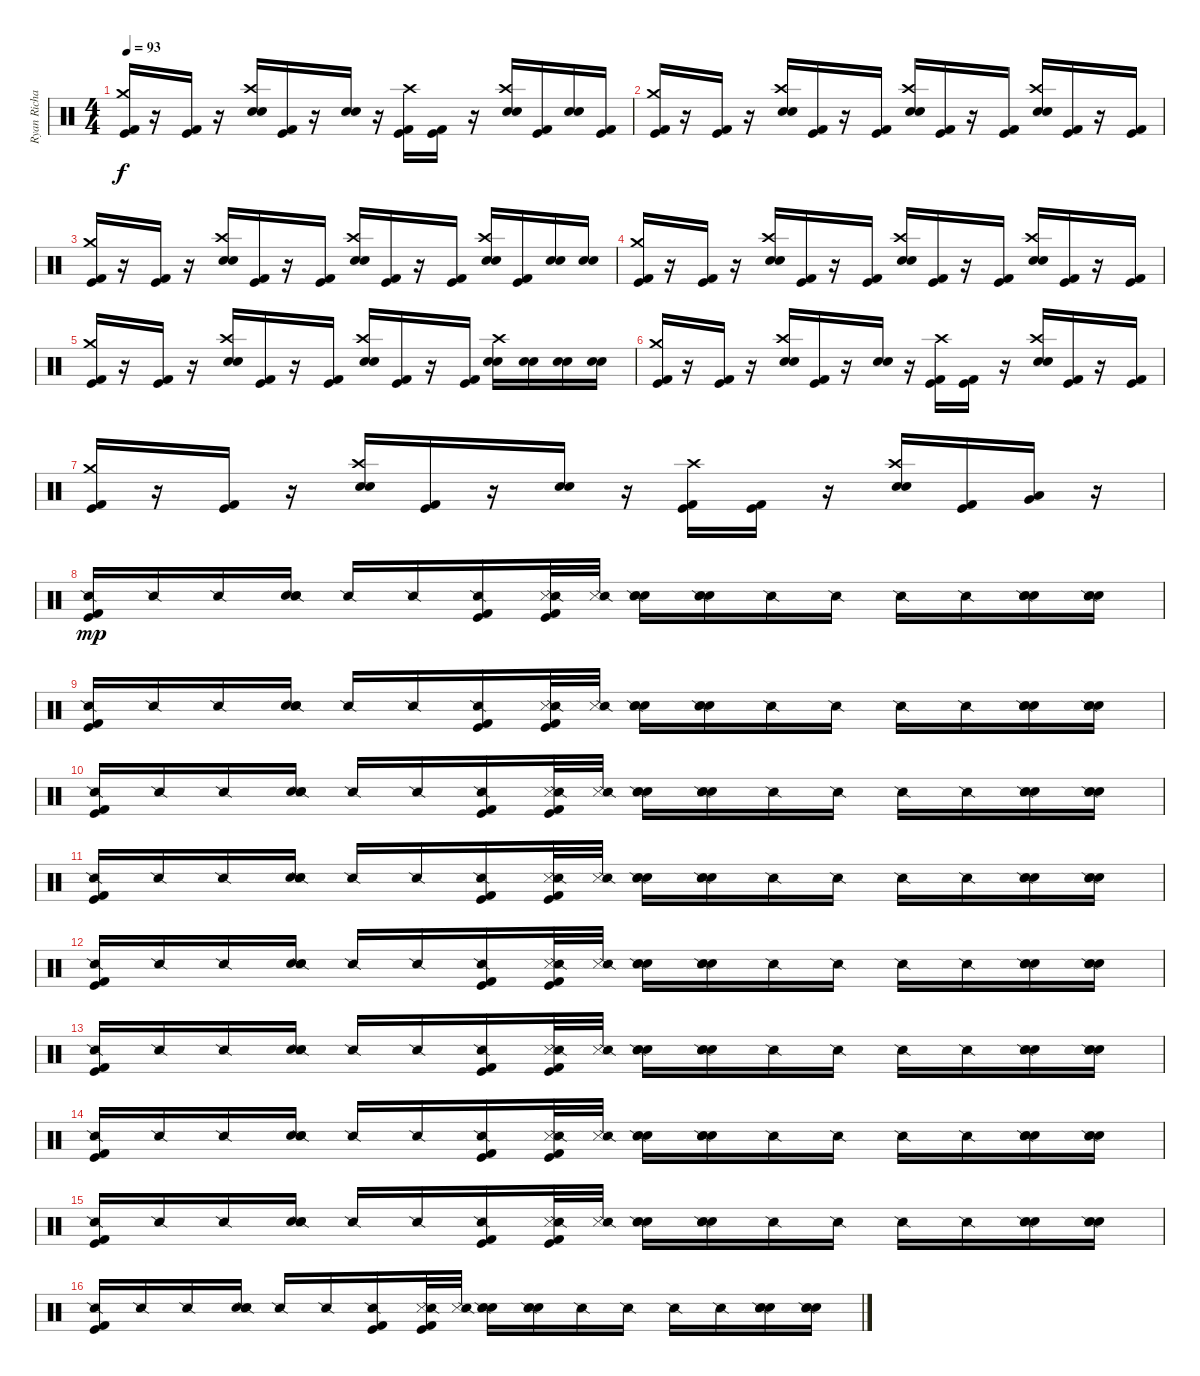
\track ("Ryan Richards" "Ryan Richa") {instrument percussion}
\staff {score}
\articulation defaults
\ts (4 4)
\tempo 93
\clef neutral
\ks c
("Kick (hit)" "Crash medium (hit)" "Kick (hit) 2").16{dy f} r.16 ("Kick (hit)" "Kick (hit) 2").16 r.16 ("Snare (hit) 2" "Crash high (hit)" "Electric Snare (hit)").16 ("Kick (hit)" "Kick (hit) 2").16 r.16 ("Snare (hit) 2" "Electric Snare (hit)").16 r.16 ("Kick (hit)" "Crash high (hit)" "Kick (hit) 2").16 ("Kick (hit)" "Kick (hit) 2").16 r.16 ("Snare (hit) 2" "Crash high (hit)" "Electric Snare (hit)").16 ("Kick (hit)" "Kick (hit) 2").16 ("Snare (hit) 2" "Electric Snare (hit)").16 ("Kick (hit)" "Kick (hit) 2").16 |
("Kick (hit)" "Crash medium (hit)" "Kick (hit) 2").16 r.16 ("Kick (hit)" "Kick (hit) 2").16 r.16 ("Snare (hit) 2" "Crash high (hit)" "Electric Snare (hit)").16 ("Kick (hit)" "Kick (hit) 2").16 r.16 ("Kick (hit)" "Kick (hit) 2").16 ("Snare (hit) 2" "Crash high (hit)" "Electric Snare (hit)").16 ("Kick (hit)" "Kick (hit) 2").16 r.16 ("Kick (hit)" "Kick (hit) 2").16 ("Snare (hit) 2" "Crash high (hit)" "Electric Snare (hit)").16 ("Kick (hit)" "Kick (hit) 2").16 r.16 ("Kick (hit)" "Kick (hit) 2").16 |
("Kick (hit)" "Crash medium (hit)" "Kick (hit) 2").16 r.16 ("Kick (hit)" "Kick (hit) 2").16 r.16 ("Snare (hit) 2" "Crash high (hit)" "Electric Snare (hit)").16 ("Kick (hit)" "Kick (hit) 2").16 r.16 ("Kick (hit)" "Kick (hit) 2").16 ("Snare (hit) 2" "Crash high (hit)" "Electric Snare (hit)").16 ("Kick (hit)" "Kick (hit) 2").16 r.16 ("Kick (hit)" "Kick (hit) 2").16 ("Snare (hit) 2" "Crash high (hit)" "Electric Snare (hit)").16 ("Kick (hit)" "Kick (hit) 2").16 ("Snare (hit) 2" "Electric Snare (hit)").16 ("Snare (hit) 2" "Electric Snare (hit)").16 |
("Kick (hit)" "Crash medium (hit)" "Kick (hit) 2").16 r.16 ("Kick (hit)" "Kick (hit) 2").16 r.16 ("Snare (hit) 2" "Crash high (hit)" "Electric Snare (hit)").16 ("Kick (hit)" "Kick (hit) 2").16 r.16 ("Kick (hit)" "Kick (hit) 2").16 ("Snare (hit) 2" "Crash high (hit)" "Electric Snare (hit)").16 ("Kick (hit)" "Kick (hit) 2").16 r.16 ("Kick (hit)" "Kick (hit) 2").16 ("Snare (hit) 2" "Crash high (hit)" "Electric Snare (hit)").16 ("Kick (hit)" "Kick (hit) 2").16 r.16 ("Kick (hit)" "Kick (hit) 2").16 |
("Kick (hit)" "Crash medium (hit)" "Kick (hit) 2").16 r.16 ("Kick (hit)" "Kick (hit) 2").16 r.16 ("Snare (hit) 2" "Crash high (hit)" "Electric Snare (hit)").16 ("Kick (hit)" "Kick (hit) 2").16 r.16 ("Kick (hit)" "Kick (hit) 2").16 ("Snare (hit) 2" "Crash high (hit)" "Electric Snare (hit)").16 ("Kick (hit)" "Kick (hit) 2").16 r.16 ("Kick (hit)" "Kick (hit) 2").16 ("Snare (hit) 2" "Crash high (hit)" "Electric Snare (hit)").16 ("Snare (hit) 2" "Electric Snare (hit)").16 ("Snare (hit) 2" "Electric Snare (hit)").16 ("Snare (hit) 2" "Electric Snare (hit)").16 |
("Kick (hit)" "Crash medium (hit)" "Kick (hit) 2").16 r.16 ("Kick (hit)" "Kick (hit) 2").16 r.16 ("Snare (hit) 2" "Crash high (hit)" "Electric Snare (hit)").16 ("Kick (hit)" "Kick (hit) 2").16 r.16 ("Snare (hit) 2" "Electric Snare (hit)").16 r.16 ("Kick (hit)" "Crash high (hit)" "Kick (hit) 2").16 ("Kick (hit)" "Kick (hit) 2").16 r.16 ("Snare (hit) 2" "Crash high (hit)" "Electric Snare (hit)").16 ("Kick (hit)" "Kick (hit) 2").16 r.16 ("Kick (hit)" "Kick (hit) 2").16 |
("Kick (hit)" "Crash medium (hit)" "Kick (hit) 2").16 r.16 ("Kick (hit)" "Kick (hit) 2").16 r.16 ("Snare (hit) 2" "Crash high (hit)" "Electric Snare (hit)").16 ("Kick (hit)" "Kick (hit) 2").16 r.16 ("Snare (hit) 2" "Electric Snare (hit)").16 r.16 ("Kick (hit)" "Crash high (hit)" "Kick (hit) 2").16 ("Kick (hit)" "Kick (hit) 2").16 r.16 ("Snare (hit) 2" "Crash high (hit)" "Electric Snare (hit)").16 ("Kick (hit)" "Kick (hit) 2").16 ("Very Low Tom (hit)" "Low Floor Tom (hit)").16 r.16 |
("Kick (hit)" "Snare (side stick) 2" "Kick (hit) 2").16{dy mp} "Snare (side stick) 2".16 "Snare (side stick) 2".16 ("Snare (hit) 2" "Snare (side stick) 2" "Electric Snare (hit)").16 "Snare (side stick) 2".16 "Snare (side stick) 2".16 ("Kick (hit)" "Snare (side stick) 2" "Kick (hit) 2").16 ("Kick (hit)" "Snare (side stick) 3" "Snare (side stick) 2" "Kick (hit) 2").32 ("Snare (side stick) 3" "Snare (side stick) 2").32 ("Snare (hit) 2" "Snare (side stick) 2" "Electric Snare (hit)").16 ("Snare (hit) 2" "Snare (side stick) 2" "Electric Snare (hit)").16 "Snare (side stick) 2".16 "Snare (side stick) 2".16 "Snare (side stick) 2".16 "Snare (side stick) 2".16 ("Snare (hit) 2" "Snare (side stick) 2" "Electric Snare (hit)").16 ("Snare (hit) 2" "Snare (side stick) 2" "Electric Snare (hit)").16 |
("Kick (hit)" "Snare (side stick) 2" "Kick (hit) 2").16 "Snare (side stick) 2".16 "Snare (side stick) 2".16 ("Snare (hit) 2" "Snare (side stick) 2" "Electric Snare (hit)").16 "Snare (side stick) 2".16 "Snare (side stick) 2".16 ("Kick (hit)" "Snare (side stick) 2" "Kick (hit) 2").16 ("Kick (hit)" "Snare (side stick) 3" "Snare (side stick) 2" "Kick (hit) 2").32 ("Snare (side stick) 3" "Snare (side stick) 2").32 ("Snare (hit) 2" "Snare (side stick) 2" "Electric Snare (hit)").16 ("Snare (hit) 2" "Snare (side stick) 2" "Electric Snare (hit)").16 "Snare (side stick) 2".16 "Snare (side stick) 2".16 "Snare (side stick) 2".16 "Snare (side stick) 2".16 ("Snare (hit) 2" "Snare (side stick) 2" "Electric Snare (hit)").16 ("Snare (hit) 2" "Snare (side stick) 2" "Electric Snare (hit)").16 |
("Kick (hit)" "Snare (side stick) 2" "Kick (hit) 2").16 "Snare (side stick) 2".16 "Snare (side stick) 2".16 ("Snare (hit) 2" "Snare (side stick) 2" "Electric Snare (hit)").16 "Snare (side stick) 2".16 "Snare (side stick) 2".16 ("Kick (hit)" "Snare (side stick) 2" "Kick (hit) 2").16 ("Kick (hit)" "Snare (side stick) 3" "Snare (side stick) 2" "Kick (hit) 2").32 ("Snare (side stick) 3" "Snare (side stick) 2").32 ("Snare (hit) 2" "Snare (side stick) 2" "Electric Snare (hit)").16 ("Snare (hit) 2" "Snare (side stick) 2" "Electric Snare (hit)").16 "Snare (side stick) 2".16 "Snare (side stick) 2".16 "Snare (side stick) 2".16 "Snare (side stick) 2".16 ("Snare (hit) 2" "Snare (side stick) 2" "Electric Snare (hit)").16 ("Snare (hit) 2" "Snare (side stick) 2" "Electric Snare (hit)").16 |
("Kick (hit)" "Snare (side stick) 2" "Kick (hit) 2").16 "Snare (side stick) 2".16 "Snare (side stick) 2".16 ("Snare (hit) 2" "Snare (side stick) 2" "Electric Snare (hit)").16 "Snare (side stick) 2".16 "Snare (side stick) 2".16 ("Kick (hit)" "Snare (side stick) 2" "Kick (hit) 2").16 ("Kick (hit)" "Snare (side stick) 3" "Snare (side stick) 2" "Kick (hit) 2").32 ("Snare (side stick) 3" "Snare (side stick) 2").32 ("Snare (hit) 2" "Snare (side stick) 2" "Electric Snare (hit)").16 ("Snare (hit) 2" "Snare (side stick) 2" "Electric Snare (hit)").16 "Snare (side stick) 2".16 "Snare (side stick) 2".16 "Snare (side stick) 2".16 "Snare (side stick) 2".16 ("Snare (hit) 2" "Snare (side stick) 2" "Electric Snare (hit)").16 ("Snare (hit) 2" "Snare (side stick) 2" "Electric Snare (hit)").16 |
("Kick (hit)" "Snare (side stick) 2" "Kick (hit) 2").16 "Snare (side stick) 2".16 "Snare (side stick) 2".16 ("Snare (hit) 2" "Snare (side stick) 2" "Electric Snare (hit)").16 "Snare (side stick) 2".16 "Snare (side stick) 2".16 ("Kick (hit)" "Snare (side stick) 2" "Kick (hit) 2").16 ("Kick (hit)" "Snare (side stick) 3" "Snare (side stick) 2" "Kick (hit) 2").32 ("Snare (side stick) 3" "Snare (side stick) 2").32 ("Snare (hit) 2" "Snare (side stick) 2" "Electric Snare (hit)").16 ("Snare (hit) 2" "Snare (side stick) 2" "Electric Snare (hit)").16 "Snare (side stick) 2".16 "Snare (side stick) 2".16 "Snare (side stick) 2".16 "Snare (side stick) 2".16 ("Snare (hit) 2" "Snare (side stick) 2" "Electric Snare (hit)").16 ("Snare (hit) 2" "Snare (side stick) 2" "Electric Snare (hit)").16 |
("Kick (hit)" "Snare (side stick) 2" "Kick (hit) 2").16 "Snare (side stick) 2".16 "Snare (side stick) 2".16 ("Snare (hit) 2" "Snare (side stick) 2" "Electric Snare (hit)").16 "Snare (side stick) 2".16 "Snare (side stick) 2".16 ("Kick (hit)" "Snare (side stick) 2" "Kick (hit) 2").16 ("Kick (hit)" "Snare (side stick) 3" "Snare (side stick) 2" "Kick (hit) 2").32 ("Snare (side stick) 3" "Snare (side stick) 2").32 ("Snare (hit) 2" "Snare (side stick) 2" "Electric Snare (hit)").16 ("Snare (hit) 2" "Snare (side stick) 2" "Electric Snare (hit)").16 "Snare (side stick) 2".16 "Snare (side stick) 2".16 "Snare (side stick) 2".16 "Snare (side stick) 2".16 ("Snare (hit) 2" "Snare (side stick) 2" "Electric Snare (hit)").16 ("Snare (hit) 2" "Snare (side stick) 2" "Electric Snare (hit)").16 |
("Kick (hit)" "Snare (side stick) 2" "Kick (hit) 2").16 "Snare (side stick) 2".16 "Snare (side stick) 2".16 ("Snare (hit) 2" "Snare (side stick) 2" "Electric Snare (hit)").16 "Snare (side stick) 2".16 "Snare (side stick) 2".16 ("Kick (hit)" "Snare (side stick) 2" "Kick (hit) 2").16 ("Kick (hit)" "Snare (side stick) 3" "Snare (side stick) 2" "Kick (hit) 2").32 ("Snare (side stick) 3" "Snare (side stick) 2").32 ("Snare (hit) 2" "Snare (side stick) 2" "Electric Snare (hit)").16 ("Snare (hit) 2" "Snare (side stick) 2" "Electric Snare (hit)").16 "Snare (side stick) 2".16 "Snare (side stick) 2".16 "Snare (side stick) 2".16 "Snare (side stick) 2".16 ("Snare (hit) 2" "Snare (side stick) 2" "Electric Snare (hit)").16 ("Snare (hit) 2" "Snare (side stick) 2" "Electric Snare (hit)").16 |
("Kick (hit)" "Snare (side stick) 2" "Kick (hit) 2").16 "Snare (side stick) 2".16 "Snare (side stick) 2".16 ("Snare (hit) 2" "Snare (side stick) 2" "Electric Snare (hit)").16 "Snare (side stick) 2".16 "Snare (side stick) 2".16 ("Kick (hit)" "Snare (side stick) 2" "Kick (hit) 2").16 ("Kick (hit)" "Snare (side stick) 3" "Snare (side stick) 2" "Kick (hit) 2").32 ("Snare (side stick) 3" "Snare (side stick) 2").32 ("Snare (hit) 2" "Snare (side stick) 2" "Electric Snare (hit)").16 ("Snare (hit) 2" "Snare (side stick) 2" "Electric Snare (hit)").16 "Snare (side stick) 2".16 "Snare (side stick) 2".16 "Snare (side stick) 2".16 "Snare (side stick) 2".16 ("Snare (hit) 2" "Snare (side stick) 2" "Electric Snare (hit)").16 ("Snare (hit) 2" "Snare (side stick) 2" "Electric Snare (hit)").16 |
("Kick (hit)" "Snare (side stick) 2" "Kick (hit) 2").16 "Snare (side stick) 2".16 "Snare (side stick) 2".16 ("Snare (hit) 2" "Snare (side stick) 2" "Electric Snare (hit)").16 "Snare (side stick) 2".16 "Snare (side stick) 2".16 ("Kick (hit)" "Snare (side stick) 2" "Kick (hit) 2").16 ("Kick (hit)" "Snare (side stick) 3" "Snare (side stick) 2" "Kick (hit) 2").32 ("Snare (side stick) 3" "Snare (side stick) 2").32 ("Snare (hit) 2" "Snare (side stick) 2" "Electric Snare (hit)").16 ("Snare (hit) 2" "Snare (side stick) 2" "Electric Snare (hit)").16 "Snare (side stick) 2".16 "Snare (side stick) 2".16 "Snare (side stick) 2".16 "Snare (side stick) 2".16 ("Snare (hit) 2" "Snare (side stick) 2" "Electric Snare (hit)").16 ("Snare (hit) 2" "Snare (side stick) 2" "Electric Snare (hit)").16
